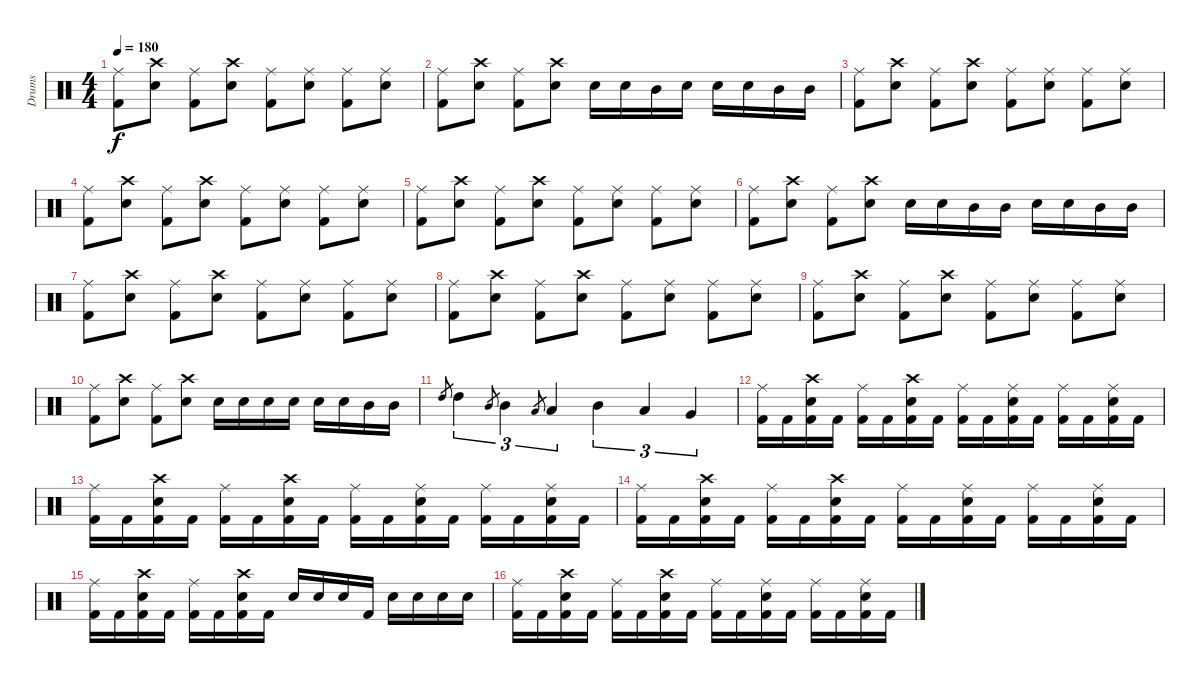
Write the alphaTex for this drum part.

\track ("Drums" "Drums") {instrument percussion}
\staff {score}
\articulation defaults
\ts (4 4)
\tempo 180
\clef neutral
\ks c
("Ride (middle)" "Kick (hit) 2").8{dy f} ("Snare (hit) 2" "Crash high (hit)").8 ("Ride (middle)" "Kick (hit) 2").8 ("Snare (hit) 2" "Crash high (hit)").8 ("Ride (middle)" "Kick (hit) 2").8 ("Ride (middle)" "Snare (hit) 2").8 ("Ride (middle)" "Kick (hit) 2").8 ("Ride (middle)" "Snare (hit) 2").8 |
("Ride (middle)" "Kick (hit) 2").8 ("Snare (hit) 2" "Crash high (hit)").8 ("Ride (middle)" "Kick (hit) 2").8 ("Snare (hit) 2" "Crash high (hit)").8 "Snare (hit) 2".16 "Snare (hit) 2".16 "Mid Tom (hit)".16 "Snare (hit) 2".16 "Snare (hit) 2".16 "Snare (hit) 2".16 "Mid Tom (hit)".16 "Mid Tom (hit)".16 |
("Ride (middle)" "Kick (hit) 2").8 ("Snare (hit) 2" "Crash high (hit)").8 ("Ride (middle)" "Kick (hit) 2").8 ("Snare (hit) 2" "Crash high (hit)").8 ("Ride (middle)" "Kick (hit) 2").8 ("Ride (middle)" "Snare (hit) 2").8 ("Ride (middle)" "Kick (hit) 2").8 ("Ride (middle)" "Snare (hit) 2").8 |
("Ride (middle)" "Kick (hit) 2").8 ("Snare (hit) 2" "Crash high (hit)").8 ("Ride (middle)" "Kick (hit) 2").8 ("Snare (hit) 2" "Crash high (hit)").8 ("Ride (middle)" "Kick (hit) 2").8 ("Ride (middle)" "Snare (hit) 2").8 ("Ride (middle)" "Kick (hit) 2").8 ("Ride (middle)" "Snare (hit) 2").8 |
("Ride (middle)" "Kick (hit) 2").8 ("Snare (hit) 2" "Crash high (hit)").8 ("Ride (middle)" "Kick (hit) 2").8 ("Snare (hit) 2" "Crash high (hit)").8 ("Ride (middle)" "Kick (hit) 2").8 ("Ride (middle)" "Snare (hit) 2").8 ("Ride (middle)" "Kick (hit) 2").8 ("Ride (middle)" "Snare (hit) 2").8 |
("Ride (middle)" "Kick (hit) 2").8 ("Snare (hit) 2" "Crash high (hit)").8 ("Ride (middle)" "Kick (hit) 2").8 ("Snare (hit) 2" "Crash high (hit)").8 "Snare (hit) 2".16 "Snare (hit) 2".16 "Mid Tom (hit)".16 "Mid Tom (hit)".16 "Snare (hit) 2".16 "Snare (hit) 2".16 "Mid Tom (hit)".16 "Mid Tom (hit)".16 |
("Ride (middle)" "Kick (hit) 2").8 ("Snare (hit) 2" "Crash high (hit)").8 ("Ride (middle)" "Kick (hit) 2").8 ("Snare (hit) 2" "Crash high (hit)").8 ("Ride (middle)" "Kick (hit) 2").8 ("Ride (middle)" "Snare (hit) 2").8 ("Ride (middle)" "Kick (hit) 2").8 ("Ride (middle)" "Snare (hit) 2").8 |
("Ride (middle)" "Kick (hit) 2").8 ("Snare (hit) 2" "Crash high (hit)").8 ("Ride (middle)" "Kick (hit) 2").8 ("Snare (hit) 2" "Crash high (hit)").8 ("Ride (middle)" "Kick (hit) 2").8 ("Ride (middle)" "Snare (hit) 2").8 ("Ride (middle)" "Kick (hit) 2").8 ("Ride (middle)" "Snare (hit) 2").8 |
("Ride (middle)" "Kick (hit) 2").8 ("Snare (hit) 2" "Crash high (hit)").8 ("Ride (middle)" "Kick (hit) 2").8 ("Snare (hit) 2" "Crash high (hit)").8 ("Ride (middle)" "Kick (hit) 2").8 ("Ride (middle)" "Snare (hit) 2").8 ("Ride (middle)" "Kick (hit) 2").8 ("Ride (middle)" "Snare (hit) 2").8 |
("Ride (middle)" "Kick (hit) 2").8 ("Snare (hit) 2" "Crash high (hit)").8 ("Ride (middle)" "Kick (hit) 2").8 ("Snare (hit) 2" "Crash high (hit)").8 "Snare (hit) 2".16 "Snare (hit) 2".16 "Snare (hit) 2".16 "Snare (hit) 2".16 "Snare (hit) 2".16 "Snare (hit) 2".16 "Mid Tom (hit)".16 "Mid Tom (hit)".16 |
"High Tom (hit)".8{gr} "High Tom (hit)".4{tu (3 2)} "Mid Tom (hit)".8{gr} "Mid Tom (hit)".4{tu (3 2)} "Low Tom (hit)".8{gr} "Low Tom (hit)".4{tu (3 2)} "Mid Tom (hit)".4{tu (3 2)} "Low Tom (hit)".4{tu (3 2)} "Very Low Tom (hit)".4{tu (3 2)} |
("Ride (middle)" "Kick (hit) 2").16 "Kick (hit) 2".16 ("Crash high (hit)" "Snare (hit) 2" "Kick (hit) 2").16 "Kick (hit) 2".16 ("Ride (middle)" "Kick (hit) 2").16 "Kick (hit) 2".16 ("Crash high (hit)" "Snare (hit) 2" "Kick (hit) 2").16 "Kick (hit) 2".16 ("Ride (middle)" "Kick (hit) 2").16 "Kick (hit) 2".16 ("Snare (hit) 2" "Ride (middle)" "Kick (hit) 2").16 "Kick (hit) 2".16 ("Ride (middle)" "Kick (hit) 2").16 "Kick (hit) 2".16 ("Snare (hit) 2" "Ride (middle)" "Kick (hit) 2").16 "Kick (hit) 2".16 |
("Ride (middle)" "Kick (hit) 2").16 "Kick (hit) 2".16 ("Crash high (hit)" "Snare (hit) 2" "Kick (hit) 2").16 "Kick (hit) 2".16 ("Ride (middle)" "Kick (hit) 2").16 "Kick (hit) 2".16 ("Crash high (hit)" "Snare (hit) 2" "Kick (hit) 2").16 "Kick (hit) 2".16 ("Ride (middle)" "Kick (hit) 2").16 "Kick (hit) 2".16 ("Snare (hit) 2" "Ride (middle)" "Kick (hit) 2").16 "Kick (hit) 2".16 ("Ride (middle)" "Kick (hit) 2").16 "Kick (hit) 2".16 ("Snare (hit) 2" "Ride (middle)" "Kick (hit) 2").16 "Kick (hit) 2".16 |
("Ride (middle)" "Kick (hit) 2").16 "Kick (hit) 2".16 ("Crash high (hit)" "Snare (hit) 2" "Kick (hit) 2").16 "Kick (hit) 2".16 ("Ride (middle)" "Kick (hit) 2").16 "Kick (hit) 2".16 ("Crash high (hit)" "Snare (hit) 2" "Kick (hit) 2").16 "Kick (hit) 2".16 ("Ride (middle)" "Kick (hit) 2").16 "Kick (hit) 2".16 ("Snare (hit) 2" "Ride (middle)" "Kick (hit) 2").16 "Kick (hit) 2".16 ("Ride (middle)" "Kick (hit) 2").16 "Kick (hit) 2".16 ("Snare (hit) 2" "Ride (middle)" "Kick (hit) 2").16 "Kick (hit) 2".16 |
("Ride (middle)" "Kick (hit) 2").16 "Kick (hit) 2".16 ("Crash high (hit)" "Snare (hit) 2" "Kick (hit) 2").16 "Kick (hit) 2".16 ("Ride (middle)" "Kick (hit) 2").16 "Kick (hit) 2".16 ("Crash high (hit)" "Snare (hit) 2" "Kick (hit) 2").16 "Kick (hit) 2".16 "Snare (hit) 2".16 "Snare (hit) 2".16 "Snare (hit) 2".16 "Kick (hit) 2".16 "Snare (hit) 2".16 "Snare (hit) 2".16 "Snare (hit) 2".16 "Snare (hit) 2".16 |
("Ride (middle)" "Kick (hit) 2").16 "Kick (hit) 2".16 ("Crash high (hit)" "Snare (hit) 2" "Kick (hit) 2").16 "Kick (hit) 2".16 ("Ride (middle)" "Kick (hit) 2").16 "Kick (hit) 2".16 ("Crash high (hit)" "Snare (hit) 2" "Kick (hit) 2").16 "Kick (hit) 2".16 ("Ride (middle)" "Kick (hit) 2").16 "Kick (hit) 2".16 ("Snare (hit) 2" "Ride (middle)" "Kick (hit) 2").16 "Kick (hit) 2".16 ("Ride (middle)" "Kick (hit) 2").16 "Kick (hit) 2".16 ("Snare (hit) 2" "Ride (middle)" "Kick (hit) 2").16 "Kick (hit) 2".16
